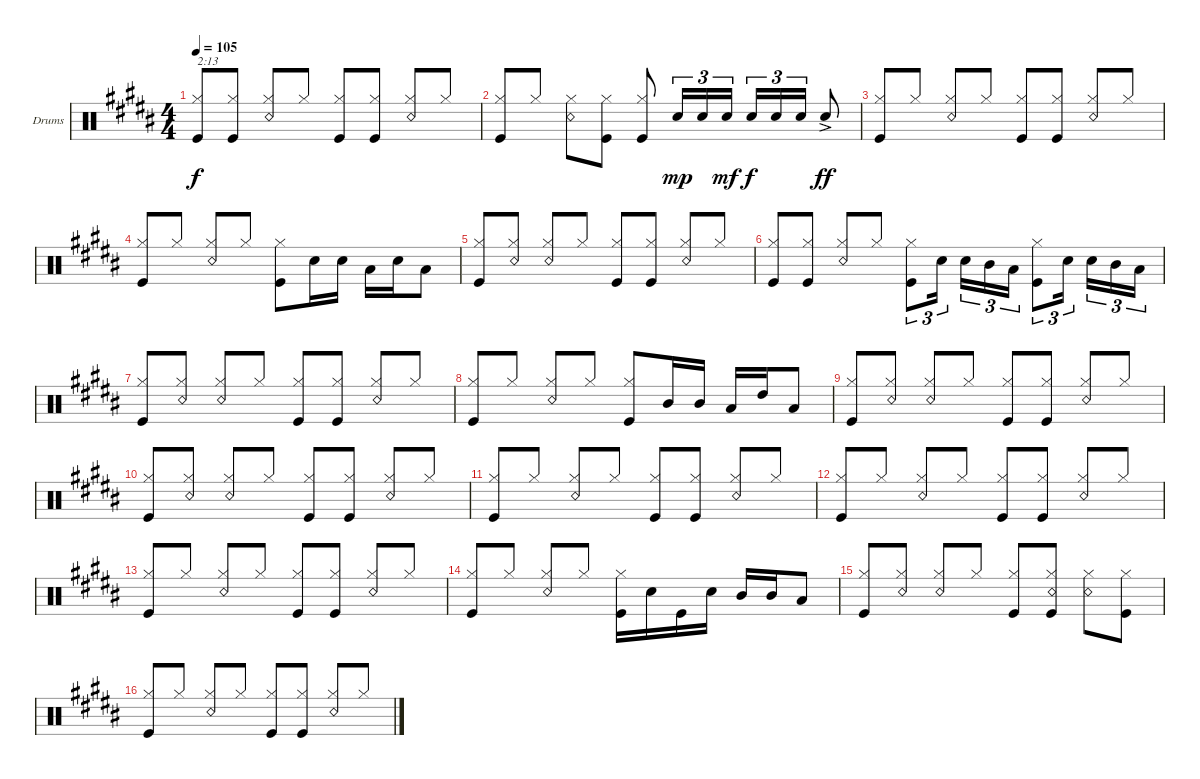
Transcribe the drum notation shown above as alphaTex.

\defaultSystemsLayout 4
\bracketExtendMode groupsimilarinstruments
\firstSystemTrackNameOrientation horizontal
\otherSystemsTrackNameOrientation horizontal
\track ("Ringo Starr" "Drums") {instrument percussion}
\staff {score}
\articulation defaults
\ts (4 4)
\tempo 105
\clef neutral
\ks b
("Hi-Hat (closed)" "Kick (hit)").8{txt "2:13" dy f} ("Hi-Hat (closed)" "Kick (hit)").8 ("Hi-Hat (closed)" "Snare (rim shot)").8{beam invert} "Hi-Hat (closed)".8 ("Hi-Hat (closed)" "Kick (hit)").8 ("Hi-Hat (closed)" "Kick (hit)").8 ("Hi-Hat (closed)" "Snare (rim shot)").8{beam invert} "Hi-Hat (closed)".8 |
("Hi-Hat (closed)" "Kick (hit)").8{beam invert} "Hi-Hat (closed)".8 ("Hi-Hat (closed)" "Snare (rim shot)").8 ("Hi-Hat (closed)" "Kick (hit)").8 ("Hi-Hat (closed)" "Kick (hit)").8 "Snare (hit) 2".16{tu (3 2) dy mp beam invert} "Snare (hit) 2".16{tu (3 2)} "Snare (hit) 2".16{tu (3 2) dy mf} "Snare (hit) 2".16{tu (3 2) dy f beam invert} "Snare (hit) 2".16{tu (3 2)} "Snare (hit) 2".16{tu (3 2)} "Snare (hit) 2"{ac}.8{dy ff beam invert} |
("Hi-Hat (closed)" "Kick (hit)").8{beam invert} "Hi-Hat (closed)".8 ("Hi-Hat (closed)" "Snare (rim shot)").8{beam invert} "Hi-Hat (closed)".8 ("Hi-Hat (closed)" "Kick (hit)").8 ("Hi-Hat (closed)" "Kick (hit)").8 ("Hi-Hat (closed)" "Snare (rim shot)").8{beam invert} "Hi-Hat (closed)".8 |
("Hi-Hat (closed)" "Kick (hit)").8{beam invert} "Hi-Hat (closed)".8 ("Hi-Hat (closed)" "Snare (rim shot)").8{beam invert} "Hi-Hat (closed)".8 ("Hi-Hat (closed)" "Kick (hit)").8 "Snare (hit) 2".16 "Snare (hit) 2".16 "Low Tom (hit)".16 "Snare (hit) 2".16 "Low Tom (hit)".8 |
("Hi-Hat (closed)" "Kick (hit)").8{beam invert} ("Hi-Hat (closed)" "Snare (rim shot)").8 ("Hi-Hat (closed)" "Snare (rim shot)").8{beam invert} "Hi-Hat (closed)".8 ("Hi-Hat (closed)" "Kick (hit)").8 ("Hi-Hat (closed)" "Kick (hit)").8 ("Hi-Hat (closed)" "Snare (rim shot)").8{beam invert} "Hi-Hat (closed)".8 |
("Hi-Hat (closed)" "Kick (hit)").8 ("Hi-Hat (closed)" "Kick (hit)").8 ("Hi-Hat (closed)" "Snare (rim shot)").8{beam invert} "Hi-Hat (closed)".8 ("Hi-Hat (closed)" "Kick (hit)").8{tu (3 2)} "Snare (hit) 2".16{tu (3 2)} "Snare (hit) 2".16{tu (3 2)} "Mid Tom (hit)".16{tu (3 2)} "Low Tom (hit)".16{tu (3 2)} ("Hi-Hat (closed)" "Kick (hit)").8{tu (3 2)} "Snare (hit) 2".16{tu (3 2)} "Snare (hit) 2".16{tu (3 2)} "Mid Tom (hit)".16{tu (3 2)} "Low Tom (hit)".16{tu (3 2)} |
("Hi-Hat (closed)" "Kick (hit)").8{beam invert} ("Hi-Hat (closed)" "Snare (rim shot)").8 ("Hi-Hat (closed)" "Snare (rim shot)").8{beam invert} "Hi-Hat (closed)".8 ("Hi-Hat (closed)" "Kick (hit)").8 ("Hi-Hat (closed)" "Kick (hit)").8 ("Hi-Hat (closed)" "Snare (rim shot)").8{beam invert} "Hi-Hat (closed)".8 |
("Hi-Hat (closed)" "Kick (hit)").8{beam invert} "Hi-Hat (closed)".8 ("Hi-Hat (closed)" "Snare (rim shot)").8{beam invert} "Hi-Hat (closed)".8 ("Hi-Hat (closed)" "Kick (hit)").8 "Mid Tom (hit)".16 "Mid Tom (hit)".16 "Low Tom (hit)".16{beam invert} "High Tom (hit)".16 "Low Tom (hit)".8 |
("Hi-Hat (closed)" "Kick (hit)").8{beam invert} ("Hi-Hat (closed)" "Snare (rim shot)").8 ("Hi-Hat (closed)" "Snare (rim shot)").8{beam invert} "Hi-Hat (closed)".8 ("Hi-Hat (closed)" "Kick (hit)").8 ("Hi-Hat (closed)" "Kick (hit)").8 ("Hi-Hat (closed)" "Snare (rim shot)").8{beam invert} "Hi-Hat (closed)".8 |
("Hi-Hat (closed)" "Kick (hit)").8{beam invert} ("Hi-Hat (closed)" "Snare (rim shot)").8 ("Hi-Hat (closed)" "Snare (rim shot)").8{beam invert} "Hi-Hat (closed)".8 ("Hi-Hat (closed)" "Kick (hit)").8 ("Hi-Hat (closed)" "Kick (hit)").8 ("Hi-Hat (closed)" "Snare (rim shot)").8{beam invert} "Hi-Hat (closed)".8 |
("Hi-Hat (closed)" "Kick (hit)").8{beam invert} "Hi-Hat (closed)".8 ("Hi-Hat (closed)" "Snare (rim shot)").8{beam invert} "Hi-Hat (closed)".8 ("Hi-Hat (closed)" "Kick (hit)").8 ("Hi-Hat (closed)" "Kick (hit)").8 ("Hi-Hat (closed)" "Snare (rim shot)").8{beam invert} "Hi-Hat (closed)".8 |
("Hi-Hat (closed)" "Kick (hit)").8{beam invert} "Hi-Hat (closed)".8 ("Hi-Hat (closed)" "Snare (rim shot)").8{beam invert} "Hi-Hat (closed)".8 ("Hi-Hat (closed)" "Kick (hit)").8 ("Hi-Hat (closed)" "Kick (hit)").8 ("Hi-Hat (closed)" "Snare (rim shot)").8{beam invert} "Hi-Hat (closed)".8 |
("Hi-Hat (closed)" "Kick (hit)").8{beam invert} "Hi-Hat (closed)".8 ("Hi-Hat (closed)" "Snare (rim shot)").8{beam invert} "Hi-Hat (closed)".8 ("Hi-Hat (closed)" "Kick (hit)").8 ("Hi-Hat (closed)" "Kick (hit)").8 ("Hi-Hat (closed)" "Snare (rim shot)").8{beam invert} "Hi-Hat (closed)".8 |
("Hi-Hat (closed)" "Kick (hit)").8{beam invert} "Hi-Hat (closed)".8 ("Hi-Hat (closed)" "Snare (rim shot)").8{beam invert} "Hi-Hat (closed)".8 ("Hi-Hat (closed)" "Kick (hit)").16 "Snare (hit) 2".16 "Kick (hit)".16 "Snare (hit) 2".16 "Mid Tom (hit)".16 "Mid Tom (hit)".16 "Low Tom (hit)".8 |
("Hi-Hat (closed)" "Kick (hit)").8{beam invert} ("Hi-Hat (closed)" "Snare (rim shot)").8 ("Hi-Hat (closed)" "Snare (rim shot)").8{beam invert} "Hi-Hat (closed)".8 ("Hi-Hat (closed)" "Kick (hit)").8{beam invert} ("Hi-Hat (closed)" "Kick (hit)" "Snare (rim shot)").8 ("Hi-Hat (closed)" "Snare (rim shot)").8 ("Hi-Hat (closed)" "Kick (hit)").8 |
("Hi-Hat (closed)" "Kick (hit)").8{beam invert} "Hi-Hat (closed)".8 ("Hi-Hat (closed)" "Snare (rim shot)").8{beam invert} "Hi-Hat (closed)".8 ("Hi-Hat (closed)" "Kick (hit)").8 ("Hi-Hat (closed)" "Kick (hit)").8 ("Hi-Hat (closed)" "Snare (rim shot)").8{beam invert} "Hi-Hat (closed)".8
